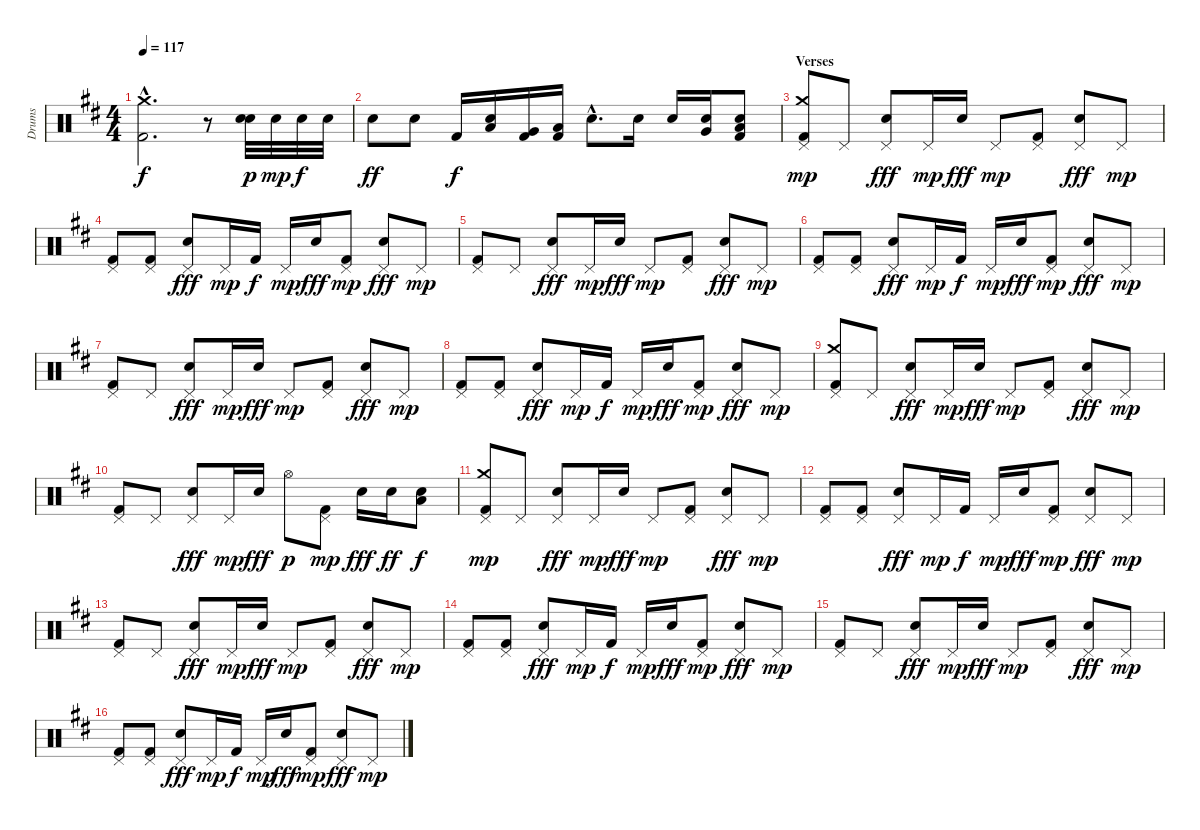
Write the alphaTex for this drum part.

\track ("Drums" "Drums") {instrument percussion}
\staff {score}
\articulation defaults
\ts (4 4)
\tempo 117
\clef neutral
\ks d
("Kick (hit) 2"{hac} "Crash medium (hit)"{hac}).2{d dy f} r.8 ("Electric Snare (hit)" "Electric Snare (hit)").32{dy p} "Electric Snare (hit)".32{dy mp} "Electric Snare (hit)".32{dy f} "Electric Snare (hit)".32 |
"Electric Snare (hit)".8{dy ff} "Electric Snare (hit)".8 "Kick (hit) 2".16{dy f} ("Electric Snare (hit)" "Low Tom (hit)").16 ("Kick (hit) 2" "Very Low Tom (hit)").16 ("Kick (hit) 2" "Low Floor Tom (hit)").16 "Electric Snare (hit)"{hac}.8{d} "Electric Snare (hit)".16 "Electric Snare (hit)".16 ("Electric Snare (hit)" "Very Low Tom (hit)").16 ("Kick (hit) 2" "Electric Snare (hit)" "Low Floor Tom (hit)").8 |
\section ("" "Verses")
("Pedal Hi-Hat (hit)" "Crash medium (hit)" "Kick (hit) 2").8{dy mp} "Pedal Hi-Hat (hit)".8 ("Pedal Hi-Hat (hit)" "Electric Snare (hit)").8{dy fff} "Pedal Hi-Hat (hit)".16{dy mp} "Electric Snare (hit)".16{dy fff} "Pedal Hi-Hat (hit)".8{dy mp} ("Pedal Hi-Hat (hit)" "Kick (hit) 2").8 ("Pedal Hi-Hat (hit)" "Electric Snare (hit)").8{dy fff} "Pedal Hi-Hat (hit)".8{dy mp} |
("Pedal Hi-Hat (hit)" "Kick (hit) 2").8 ("Pedal Hi-Hat (hit)" "Kick (hit) 2").8 ("Pedal Hi-Hat (hit)" "Electric Snare (hit)").8{dy fff} "Pedal Hi-Hat (hit)".16{dy mp} "Kick (hit) 2".16{dy f} "Pedal Hi-Hat (hit)".16{dy mp} "Electric Snare (hit)".16{dy fff} ("Pedal Hi-Hat (hit)" "Kick (hit) 2").8{dy mp} ("Pedal Hi-Hat (hit)" "Electric Snare (hit)").8{dy fff} "Pedal Hi-Hat (hit)".8{dy mp} |
("Pedal Hi-Hat (hit)" "Kick (hit) 2").8 "Pedal Hi-Hat (hit)".8 ("Pedal Hi-Hat (hit)" "Electric Snare (hit)").8{dy fff} "Pedal Hi-Hat (hit)".16{dy mp} "Electric Snare (hit)".16{dy fff} "Pedal Hi-Hat (hit)".8{dy mp} ("Pedal Hi-Hat (hit)" "Kick (hit) 2").8 ("Pedal Hi-Hat (hit)" "Electric Snare (hit)").8{dy fff} "Pedal Hi-Hat (hit)".8{dy mp} |
("Pedal Hi-Hat (hit)" "Kick (hit) 2").8 ("Pedal Hi-Hat (hit)" "Kick (hit) 2").8 ("Pedal Hi-Hat (hit)" "Electric Snare (hit)").8{dy fff} "Pedal Hi-Hat (hit)".16{dy mp} "Kick (hit) 2".16{dy f} "Pedal Hi-Hat (hit)".16{dy mp} "Electric Snare (hit)".16{dy fff} ("Pedal Hi-Hat (hit)" "Kick (hit) 2").8{dy mp} ("Pedal Hi-Hat (hit)" "Electric Snare (hit)").8{dy fff} "Pedal Hi-Hat (hit)".8{dy mp} |
("Pedal Hi-Hat (hit)" "Kick (hit) 2").8 "Pedal Hi-Hat (hit)".8 ("Pedal Hi-Hat (hit)" "Electric Snare (hit)").8{dy fff} "Pedal Hi-Hat (hit)".16{dy mp} "Electric Snare (hit)".16{dy fff} "Pedal Hi-Hat (hit)".8{dy mp} ("Pedal Hi-Hat (hit)" "Kick (hit) 2").8 ("Pedal Hi-Hat (hit)" "Electric Snare (hit)").8{dy fff} "Pedal Hi-Hat (hit)".8{dy mp} |
("Pedal Hi-Hat (hit)" "Kick (hit) 2").8 ("Pedal Hi-Hat (hit)" "Kick (hit) 2").8 ("Pedal Hi-Hat (hit)" "Electric Snare (hit)").8{dy fff} "Pedal Hi-Hat (hit)".16{dy mp} "Kick (hit) 2".16{dy f} "Pedal Hi-Hat (hit)".16{dy mp} "Electric Snare (hit)".16{dy fff} ("Pedal Hi-Hat (hit)" "Kick (hit) 2").8{dy mp} ("Pedal Hi-Hat (hit)" "Electric Snare (hit)").8{dy fff} "Pedal Hi-Hat (hit)".8{dy mp} |
("Pedal Hi-Hat (hit)" "Crash medium (hit)" "Kick (hit) 2").8 "Pedal Hi-Hat (hit)".8 ("Pedal Hi-Hat (hit)" "Electric Snare (hit)").8{dy fff} "Pedal Hi-Hat (hit)".16{dy mp} "Electric Snare (hit)".16{dy fff} "Pedal Hi-Hat (hit)".8{dy mp} ("Pedal Hi-Hat (hit)" "Kick (hit) 2").8 ("Pedal Hi-Hat (hit)" "Electric Snare (hit)").8{dy fff} "Pedal Hi-Hat (hit)".8{dy mp} |
("Pedal Hi-Hat (hit)" "Kick (hit) 2").8 "Pedal Hi-Hat (hit)".8 ("Pedal Hi-Hat (hit)" "Electric Snare (hit)").8{dy fff} "Pedal Hi-Hat (hit)".16{dy mp} "Electric Snare (hit)".16{dy fff} "Hi-Hat (open)".8{dy p} ("Pedal Hi-Hat (hit)" "Kick (hit) 2").8{dy mp} "Electric Snare (hit)".16{dy fff} "Electric Snare (hit)".16{dy ff} ("Electric Snare (hit)" "Low Floor Tom (hit)").8{dy f} |
("Pedal Hi-Hat (hit)" "Crash medium (hit)" "Kick (hit) 2").8{dy mp} "Pedal Hi-Hat (hit)".8 ("Pedal Hi-Hat (hit)" "Electric Snare (hit)").8{dy fff} "Pedal Hi-Hat (hit)".16{dy mp} "Electric Snare (hit)".16{dy fff} "Pedal Hi-Hat (hit)".8{dy mp} ("Pedal Hi-Hat (hit)" "Kick (hit) 2").8 ("Pedal Hi-Hat (hit)" "Electric Snare (hit)").8{dy fff} "Pedal Hi-Hat (hit)".8{dy mp} |
("Pedal Hi-Hat (hit)" "Kick (hit) 2").8 ("Pedal Hi-Hat (hit)" "Kick (hit) 2").8 ("Pedal Hi-Hat (hit)" "Electric Snare (hit)").8{dy fff} "Pedal Hi-Hat (hit)".16{dy mp} "Kick (hit) 2".16{dy f} "Pedal Hi-Hat (hit)".16{dy mp} "Electric Snare (hit)".16{dy fff} ("Pedal Hi-Hat (hit)" "Kick (hit) 2").8{dy mp} ("Pedal Hi-Hat (hit)" "Electric Snare (hit)").8{dy fff} "Pedal Hi-Hat (hit)".8{dy mp} |
("Pedal Hi-Hat (hit)" "Kick (hit) 2").8 "Pedal Hi-Hat (hit)".8 ("Pedal Hi-Hat (hit)" "Electric Snare (hit)").8{dy fff} "Pedal Hi-Hat (hit)".16{dy mp} "Electric Snare (hit)".16{dy fff} "Pedal Hi-Hat (hit)".8{dy mp} ("Pedal Hi-Hat (hit)" "Kick (hit) 2").8 ("Pedal Hi-Hat (hit)" "Electric Snare (hit)").8{dy fff} "Pedal Hi-Hat (hit)".8{dy mp} |
("Pedal Hi-Hat (hit)" "Kick (hit) 2").8 ("Pedal Hi-Hat (hit)" "Kick (hit) 2").8 ("Pedal Hi-Hat (hit)" "Electric Snare (hit)").8{dy fff} "Pedal Hi-Hat (hit)".16{dy mp} "Kick (hit) 2".16{dy f} "Pedal Hi-Hat (hit)".16{dy mp} "Electric Snare (hit)".16{dy fff} ("Pedal Hi-Hat (hit)" "Kick (hit) 2").8{dy mp} ("Pedal Hi-Hat (hit)" "Electric Snare (hit)").8{dy fff} "Pedal Hi-Hat (hit)".8{dy mp} |
("Pedal Hi-Hat (hit)" "Kick (hit) 2").8 "Pedal Hi-Hat (hit)".8 ("Pedal Hi-Hat (hit)" "Electric Snare (hit)").8{dy fff} "Pedal Hi-Hat (hit)".16{dy mp} "Electric Snare (hit)".16{dy fff} "Pedal Hi-Hat (hit)".8{dy mp} ("Pedal Hi-Hat (hit)" "Kick (hit) 2").8 ("Pedal Hi-Hat (hit)" "Electric Snare (hit)").8{dy fff} "Pedal Hi-Hat (hit)".8{dy mp} |
("Pedal Hi-Hat (hit)" "Kick (hit) 2").8 ("Pedal Hi-Hat (hit)" "Kick (hit) 2").8 ("Pedal Hi-Hat (hit)" "Electric Snare (hit)").8{dy fff} "Pedal Hi-Hat (hit)".16{dy mp} "Kick (hit) 2".16{dy f} "Pedal Hi-Hat (hit)".16{dy mp} "Electric Snare (hit)".16{dy fff} ("Pedal Hi-Hat (hit)" "Kick (hit) 2").8{dy mp} ("Pedal Hi-Hat (hit)" "Electric Snare (hit)").8{dy fff} "Pedal Hi-Hat (hit)".8{dy mp}
